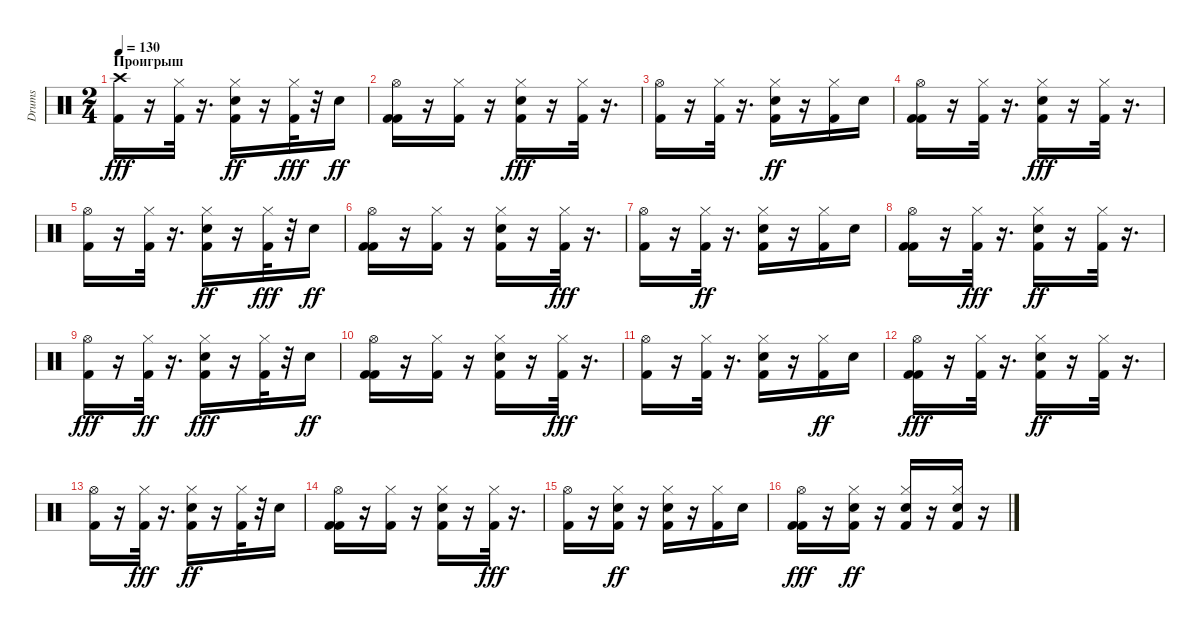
\track ("Drums" "Drums") {solo instrument percussion}
\staff {score}
\articulation defaults
\ts (2 4)
\section ("" "Проигрыш")
\tempo 130
\clef neutral
\ks c
("Kick (hit) 2" "Crash high (hit)").16{dy fff} r.16 ("Kick (hit) 2" "Hi-Hat (closed)").32 r.16{d} ("Kick (hit) 2" "Hi-Hat (closed)" "Snare (hit) 2").16{dy ff} r.16 ("Kick (hit) 2" "Hi-Hat (closed)").32{dy fff} r.32 "Snare (hit) 2".16{dy ff} |
("Kick (hit) 2" "Hi-Hat (open)" "Kick (hit) 2").16 r.16 ("Hi-Hat (closed)" "Kick (hit) 2").16 r.16 ("Kick (hit) 2" "Snare (hit) 2" "Hi-Hat (closed)").16{dy fff} r.16 ("Kick (hit) 2" "Hi-Hat (closed)").32 r.16{d} |
("Kick (hit) 2" "Hi-Hat (open)").16 r.16 ("Kick (hit) 2" "Hi-Hat (closed)").32 r.16{d} ("Snare (hit) 2" "Hi-Hat (closed)" "Kick (hit) 2").16{dy ff} r.16 ("Hi-Hat (closed)" "Kick (hit) 2").16 "Snare (hit) 2".16 |
("Hi-Hat (open)" "Kick (hit) 2" "Kick (hit) 2").16 r.16 ("Hi-Hat (closed)" "Kick (hit) 2").32 r.16{d} ("Snare (hit) 2" "Kick (hit) 2" "Hi-Hat (closed)").16{dy fff} r.16 ("Kick (hit) 2" "Hi-Hat (closed)").32 r.16{d} |
("Kick (hit) 2" "Hi-Hat (open)").16 r.16 ("Kick (hit) 2" "Hi-Hat (closed)").32 r.16{d} ("Snare (hit) 2" "Hi-Hat (closed)" "Kick (hit) 2").16{dy ff} r.16 ("Kick (hit) 2" "Hi-Hat (closed)").32{dy fff} r.32 "Snare (hit) 2".16{dy ff} |
("Kick (hit) 2" "Hi-Hat (open)" "Kick (hit) 2").16 r.16 ("Hi-Hat (closed)" "Kick (hit) 2").16 r.16 ("Hi-Hat (closed)" "Kick (hit) 2" "Snare (hit) 2").16 r.16 ("Kick (hit) 2" "Hi-Hat (closed)").32{dy fff} r.16{d} |
("Kick (hit) 2" "Hi-Hat (open)").16 r.16 ("Hi-Hat (closed)" "Kick (hit) 2").32{dy ff} r.16{d} ("Hi-Hat (closed)" "Kick (hit) 2" "Snare (hit) 2").16 r.16 ("Hi-Hat (closed)" "Kick (hit) 2").16 "Snare (hit) 2".16 |
("Kick (hit) 2" "Hi-Hat (open)" "Kick (hit) 2").16 r.16 ("Kick (hit) 2" "Hi-Hat (closed)").32{dy fff} r.16{d} ("Hi-Hat (closed)" "Kick (hit) 2" "Snare (hit) 2").16{dy ff} r.16 ("Hi-Hat (closed)" "Kick (hit) 2").32 r.16{d} |
("Kick (hit) 2" "Hi-Hat (open)").16{dy fff} r.16 ("Hi-Hat (closed)" "Kick (hit) 2").32{dy ff} r.16{d} ("Snare (hit) 2" "Kick (hit) 2" "Hi-Hat (closed)").16{dy fff} r.16 ("Kick (hit) 2" "Hi-Hat (closed)").32 r.32 "Snare (hit) 2".16{dy ff} |
("Hi-Hat (open)" "Kick (hit) 2" "Kick (hit) 2").16 r.16 ("Hi-Hat (closed)" "Kick (hit) 2").16 r.16 ("Kick (hit) 2" "Hi-Hat (closed)" "Snare (hit) 2").16 r.16 ("Kick (hit) 2" "Hi-Hat (closed)").32{dy fff} r.16{d} |
("Kick (hit) 2" "Hi-Hat (open)").16 r.16 ("Kick (hit) 2" "Hi-Hat (closed)").32 r.16{d} ("Snare (hit) 2" "Kick (hit) 2" "Hi-Hat (closed)").16 r.16 ("Hi-Hat (closed)" "Kick (hit) 2").16{dy ff} "Snare (hit) 2".16 |
("Kick (hit) 2" "Kick (hit) 2" "Hi-Hat (open)").16{dy fff} r.16 ("Kick (hit) 2" "Hi-Hat (closed)").32 r.16{d} ("Hi-Hat (closed)" "Snare (hit) 2" "Kick (hit) 2").16{dy ff} r.16 ("Hi-Hat (closed)" "Kick (hit) 2").32 r.16{d} |
("Hi-Hat (open)" "Kick (hit) 2").16 r.16 ("Kick (hit) 2" "Hi-Hat (closed)").32{dy fff} r.16{d} ("Snare (hit) 2" "Hi-Hat (closed)" "Kick (hit) 2").16{dy ff} r.16 ("Hi-Hat (closed)" "Kick (hit) 2").32 r.32 "Snare (hit) 2".16 |
("Kick (hit) 2" "Hi-Hat (open)" "Kick (hit) 2").16 r.16 ("Hi-Hat (closed)" "Kick (hit) 2").16 r.16 ("Hi-Hat (closed)" "Kick (hit) 2" "Snare (hit) 2").16 r.16 ("Kick (hit) 2" "Hi-Hat (closed)").32{dy fff} r.16{d} |
("Kick (hit) 2" "Hi-Hat (open)").16 r.16 ("Snare (hit) 2" "Hi-Hat (closed)" "Kick (hit) 2").16{dy ff} r.16 ("Kick (hit) 2" "Hi-Hat (closed)" "Snare (hit) 2").16 r.16 ("Hi-Hat (closed)" "Kick (hit) 2").16 "Snare (hit) 2".16 |
("Kick (hit) 2" "Kick (hit) 2" "Hi-Hat (open)").16{dy fff} r.16 ("Kick (hit) 2" "Hi-Hat (closed)" "Snare (hit) 2").16{dy ff} r.16 ("Hi-Hat (closed)" "Kick (hit) 2" "Snare (hit) 2").16 r.16 ("Snare (hit) 2" "Hi-Hat (closed)" "Kick (hit) 2").16 r.16
